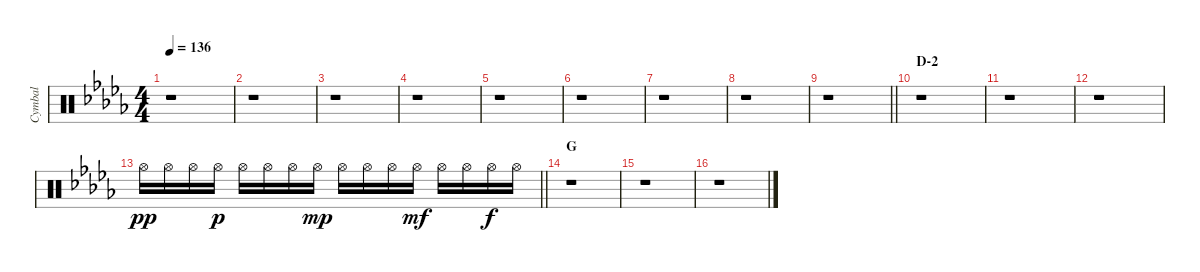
\track ("Cymbal" "Cymbal") {instrument percussion}
\staff {score}
\articulation defaults
\ts (4 4)
\tempo 136
\clef neutral
\ks db
r.1{dy f} |
r.1 |
r.1 |
r.1 |
r.1 |
r.1 |
r.1 |
r.1 |
\barLineRight lightlight
r.1 |
\section ("" "D-2")
r.1 |
r.1 |
r.1 |
\barLineRight lightlight "Hi-Hat (open)".16{dy pp} "Hi-Hat (open)".16 "Hi-Hat (open)".16 "Hi-Hat (open)".16{dy p} "Hi-Hat (open)".16 "Hi-Hat (open)".16 "Hi-Hat (open)".16 "Hi-Hat (open)".16{dy mp} "Hi-Hat (open)".16 "Hi-Hat (open)".16 "Hi-Hat (open)".16 "Hi-Hat (open)".16{dy mf} "Hi-Hat (open)".16 "Hi-Hat (open)".16 "Hi-Hat (open)".16{dy f} "Hi-Hat (open)".16
|
\section ("" "G")
r.1 |
r.1 |
r.1
